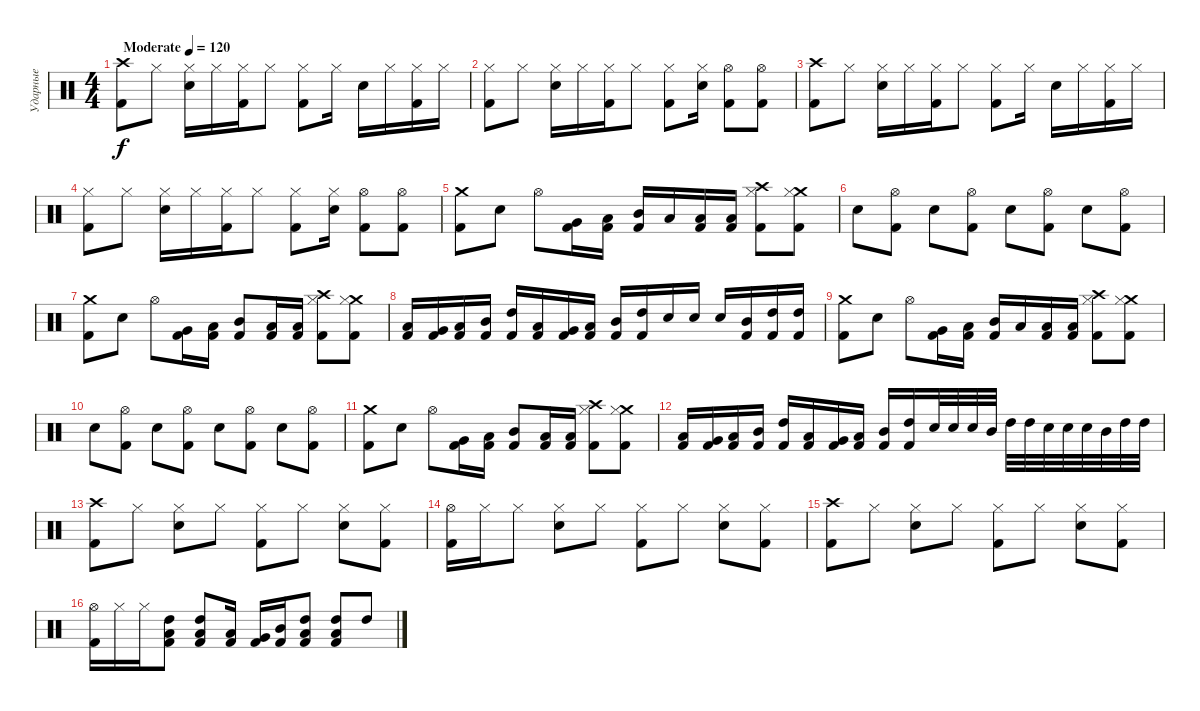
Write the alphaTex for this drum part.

\track ("Ударные" "Ударные") {instrument percussion}
\staff {score}
\articulation defaults
\ts (4 4)
\tempo (120 "Moderate")
\clef neutral
\ks c
("Crash high (hit)" "Kick (hit) 2").8{dy f} "Hi-Hat (closed)".8 ("Hi-Hat (closed)" "Snare (hit) 2").16 "Hi-Hat (closed)".16 ("Hi-Hat (closed)" "Kick (hit) 2").16 "Hi-Hat (closed)".8 ("Hi-Hat (closed)" "Kick (hit) 2").8 "Hi-Hat (closed)".16 "Snare (hit) 2".16 "Hi-Hat (closed)".16 ("Hi-Hat (closed)" "Kick (hit) 2").16 "Hi-Hat (closed)".16 |
("Hi-Hat (closed)" "Kick (hit) 2").8 "Hi-Hat (closed)".8 ("Hi-Hat (closed)" "Snare (hit) 2").16 "Hi-Hat (closed)".16 ("Hi-Hat (closed)" "Kick (hit) 2").16 "Hi-Hat (closed)".8 ("Hi-Hat (closed)" "Kick (hit) 2").8 ("Hi-Hat (closed)" "Snare (hit) 2").16 ("Hi-Hat (open)" "Kick (hit) 2").8 ("Hi-Hat (open)" "Kick (hit) 2").8 |
("Crash high (hit)" "Kick (hit) 2").8 "Hi-Hat (closed)".8 ("Hi-Hat (closed)" "Snare (hit) 2").16 "Hi-Hat (closed)".16 ("Hi-Hat (closed)" "Kick (hit) 2").16 "Hi-Hat (closed)".8 ("Hi-Hat (closed)" "Kick (hit) 2").8 "Hi-Hat (closed)".16 "Snare (hit) 2".16 "Hi-Hat (closed)".16 ("Hi-Hat (closed)" "Kick (hit) 2").16 "Hi-Hat (closed)".16 |
("Hi-Hat (closed)" "Kick (hit) 2").8 "Hi-Hat (closed)".8 ("Hi-Hat (closed)" "Snare (hit) 2").16 "Hi-Hat (closed)".16 ("Hi-Hat (closed)" "Kick (hit) 2").16 "Hi-Hat (closed)".8 ("Hi-Hat (closed)" "Kick (hit) 2").8 ("Hi-Hat (closed)" "Snare (hit) 2").16 ("Hi-Hat (open)" "Kick (hit) 2").8 ("Hi-Hat (open)" "Kick (hit) 2").8 |
("Crash medium (hit)" "Kick (hit) 2").8 "Snare (hit) 2".8 "Hi-Hat (open)".8 ("Very Low Tom (hit)" "Kick (hit) 2").16 ("Low Tom (hit)" "Kick (hit) 2").16 ("Mid Tom (hit)" "Kick (hit) 2").16 "Low Tom (hit)".16 ("Low Tom (hit)" "Kick (hit) 2").16 ("Low Tom (hit)" "Kick (hit) 2").16 ("Crash high (hit)" "Hi-Hat (closed)" "Kick (hit) 2").8 ("Crash medium (hit)" "Hi-Hat (closed)" "Kick (hit) 2").8 |
"Snare (hit) 2".8 ("Hi-Hat (open)" "Kick (hit) 2").8 "Snare (hit) 2".8 ("Hi-Hat (open)" "Kick (hit) 2").8 "Snare (hit) 2".8 ("Hi-Hat (open)" "Kick (hit) 2").8 "Snare (hit) 2".8 ("Hi-Hat (open)" "Kick (hit) 2").8 |
("Crash medium (hit)" "Kick (hit) 2").8 "Snare (hit) 2".8 "Hi-Hat (open)".8 ("Very Low Tom (hit)" "Kick (hit) 2").16 ("Low Tom (hit)" "Kick (hit) 2").16 ("Mid Tom (hit)" "Kick (hit) 2").8 ("Low Tom (hit)" "Kick (hit) 2").16 ("Low Tom (hit)" "Kick (hit) 2").16 ("Crash high (hit)" "Hi-Hat (closed)" "Kick (hit) 2").8 ("Crash medium (hit)" "Hi-Hat (closed)" "Kick (hit) 2").8 |
("Low Floor Tom (hit)" "Kick (hit) 2").16 ("Very Low Tom (hit)" "Kick (hit) 2").16 ("Low Tom (hit)" "Kick (hit) 2").16 ("Mid Tom (hit)" "Kick (hit) 2").16 ("High Tom (hit)" "Kick (hit) 2").16 ("Low Floor Tom (hit)" "Kick (hit) 2").16 ("Very Low Tom (hit)" "Kick (hit) 2").16 ("Low Tom (hit)" "Kick (hit) 2").16 ("Mid Tom (hit)" "Kick (hit) 2").16 ("High Tom (hit)" "Kick (hit) 2").16 "Snare (hit) 2".16 "Snare (hit) 2".16 "Snare (hit) 2".16 ("Mid Tom (hit)" "Kick (hit) 2").16 ("High Tom (hit)" "Kick (hit) 2").16 ("High Tom (hit)" "Kick (hit) 2").16 |
("Crash medium (hit)" "Kick (hit) 2").8 "Snare (hit) 2".8 "Hi-Hat (open)".8 ("Very Low Tom (hit)" "Kick (hit) 2").16 ("Low Tom (hit)" "Kick (hit) 2").16 ("Mid Tom (hit)" "Kick (hit) 2").16 "Low Tom (hit)".16 ("Low Tom (hit)" "Kick (hit) 2").16 ("Low Tom (hit)" "Kick (hit) 2").16 ("Crash high (hit)" "Hi-Hat (closed)" "Kick (hit) 2").8 ("Crash medium (hit)" "Hi-Hat (closed)" "Kick (hit) 2").8 |
"Snare (hit) 2".8 ("Hi-Hat (open)" "Kick (hit) 2").8 "Snare (hit) 2".8 ("Hi-Hat (open)" "Kick (hit) 2").8 "Snare (hit) 2".8 ("Hi-Hat (open)" "Kick (hit) 2").8 "Snare (hit) 2".8 ("Hi-Hat (open)" "Kick (hit) 2").8 |
("Crash medium (hit)" "Kick (hit) 2").8 "Snare (hit) 2".8 "Hi-Hat (open)".8 ("Very Low Tom (hit)" "Kick (hit) 2").16 ("Low Tom (hit)" "Kick (hit) 2").16 ("Mid Tom (hit)" "Kick (hit) 2").8 ("Low Tom (hit)" "Kick (hit) 2").16 ("Low Tom (hit)" "Kick (hit) 2").16 ("Crash high (hit)" "Hi-Hat (closed)" "Kick (hit) 2").8 ("Crash medium (hit)" "Hi-Hat (closed)" "Kick (hit) 2").8 |
("Low Floor Tom (hit)" "Kick (hit) 2").16 ("Very Low Tom (hit)" "Kick (hit) 2").16 ("Low Tom (hit)" "Kick (hit) 2").16 ("Mid Tom (hit)" "Kick (hit) 2").16 ("High Tom (hit)" "Kick (hit) 2").16 ("Low Floor Tom (hit)" "Kick (hit) 2").16 ("Very Low Tom (hit)" "Kick (hit) 2").16 ("Low Tom (hit)" "Kick (hit) 2").16 ("Mid Tom (hit)" "Kick (hit) 2").16 ("High Tom (hit)" "Kick (hit) 2").16 "Snare (hit) 2".32 "Snare (hit) 2".32 "Snare (hit) 2".32 "Mid Tom (hit)".32 "High Tom (hit)".32 "High Tom (hit)".32 "Snare (hit) 2".32 "Snare (hit) 2".32 "Snare (hit) 2".32 "Mid Tom (hit)".32 "High Tom (hit)".32 "High Tom (hit)".32 |
("Crash high (hit)" "Kick (hit) 2").8 "Hi-Hat (closed)".8 ("Hi-Hat (closed)" "Snare (hit) 2").8 "Hi-Hat (closed)".8 ("Hi-Hat (closed)" "Kick (hit) 2").8 "Hi-Hat (closed)".8 ("Hi-Hat (closed)" "Snare (hit) 2").8 ("Hi-Hat (closed)" "Kick (hit) 2").8 |
("Hi-Hat (open)" "Kick (hit) 2").16 "Hi-Hat (closed)".16 "Hi-Hat (closed)".8 ("Hi-Hat (closed)" "Snare (hit) 2").8 "Hi-Hat (closed)".8 ("Hi-Hat (closed)" "Kick (hit) 2").8 "Hi-Hat (closed)".8 ("Hi-Hat (closed)" "Snare (hit) 2").8 ("Hi-Hat (closed)" "Kick (hit) 2").8 |
("Crash high (hit)" "Kick (hit) 2").8 "Hi-Hat (closed)".8 ("Hi-Hat (closed)" "Snare (hit) 2").8 "Hi-Hat (closed)".8 ("Hi-Hat (closed)" "Kick (hit) 2").8 "Hi-Hat (closed)".8 ("Hi-Hat (closed)" "Snare (hit) 2").8 ("Hi-Hat (closed)" "Kick (hit) 2").8 |
("Hi-Hat (open)" "Kick (hit) 2").16 "Hi-Hat (closed)".16 "Hi-Hat (closed)".16 ("High Tom (hit)" "Low Tom (hit)" "Kick (hit) 2").8 ("High Tom (hit)" "Low Tom (hit)" "Kick (hit) 2").8 ("Low Tom (hit)" "Kick (hit) 2").16 ("Very Low Tom (hit)" "Kick (hit) 2").16 ("Mid Tom (hit)" "Kick (hit) 2").16 ("High Tom (hit)" "Low Tom (hit)" "Kick (hit) 2").8 ("High Tom (hit)" "Low Tom (hit)" "Kick (hit) 2").8 "High Tom (hit)".8
